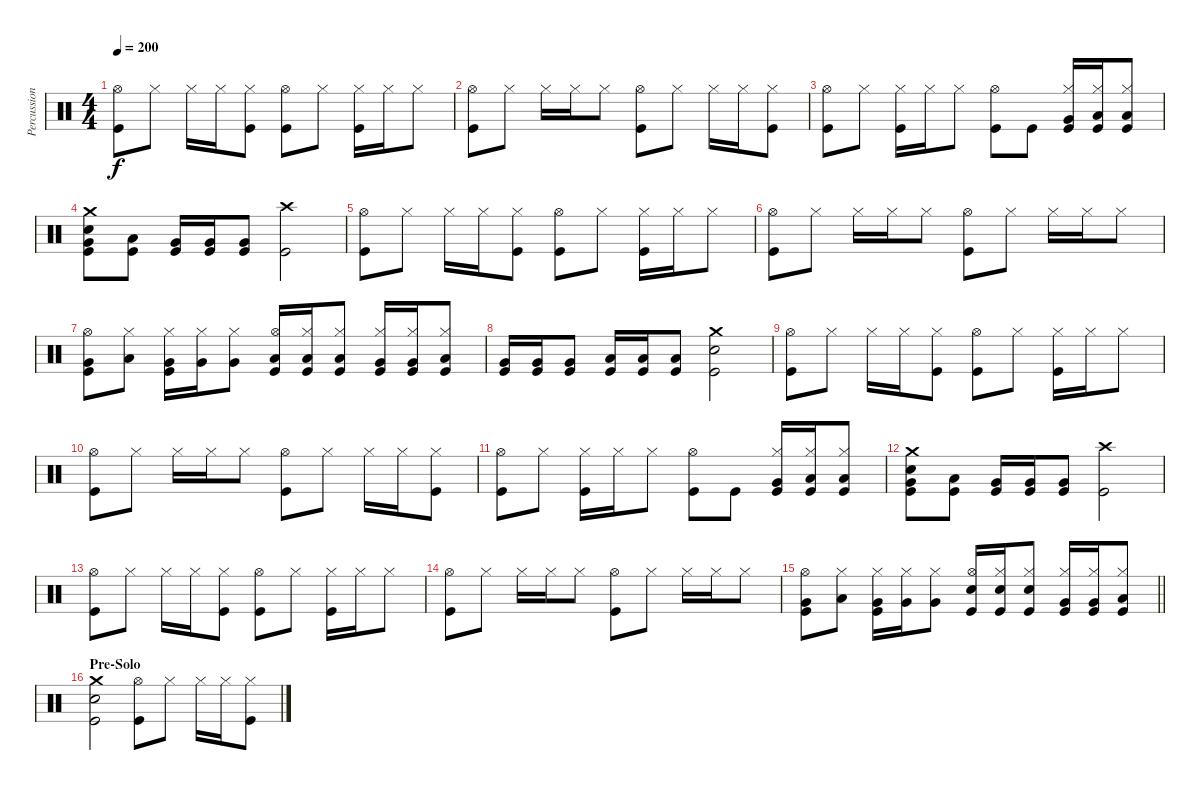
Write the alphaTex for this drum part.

\track ("Percussion" "Percussion") {instrument percussion}
\staff {score}
\articulation defaults
\ts (4 4)
\tempo 200
\clef neutral
\ks c
("Kick (hit)" "Hi-Hat (open)").8{dy f} "Hi-Hat (closed)".8 "Hi-Hat (closed)".16 "Hi-Hat (closed)".16 ("Kick (hit)" "Hi-Hat (closed)").8 ("Kick (hit)" "Hi-Hat (open)").8 "Hi-Hat (closed)".8 ("Kick (hit)" "Hi-Hat (closed)").16 "Hi-Hat (closed)".16 "Hi-Hat (closed)".8 |
("Kick (hit)" "Hi-Hat (open)").8 "Hi-Hat (closed)".8 "Hi-Hat (closed)".16 "Hi-Hat (closed)".16 "Hi-Hat (closed)".8 ("Kick (hit)" "Hi-Hat (open)").8 "Hi-Hat (closed)".8 "Hi-Hat (closed)".16 "Hi-Hat (closed)".16 ("Kick (hit)" "Hi-Hat (closed)").8 |
("Kick (hit)" "Hi-Hat (open)").8 "Hi-Hat (closed)".8 ("Kick (hit)" "Hi-Hat (closed)").16 "Hi-Hat (closed)".16 "Hi-Hat (closed)".8 ("Kick (hit)" "Hi-Hat (open)").8 "Kick (hit)".8 ("Kick (hit)" "Hi-Hat (closed)" "Very Low Tom (hit)").16 ("Kick (hit)" "Hi-Hat (closed)" "Low Floor Tom (hit)").16 ("Kick (hit)" "Hi-Hat (closed)" "Low Floor Tom (hit)").8 |
("Snare (hit) 2" "Crash medium (hit)" "Kick (hit)" "Very Low Tom (hit)").8 ("Kick (hit)" "Low Floor Tom (hit)").8 ("Kick (hit)" "Very Low Tom (hit)").16 ("Kick (hit)" "Very Low Tom (hit)").16 ("Kick (hit)" "Very Low Tom (hit)").8 ("Kick (hit)" "Crash high (hit)").2 |
("Kick (hit)" "Hi-Hat (open)").8 "Hi-Hat (closed)".8 "Hi-Hat (closed)".16 "Hi-Hat (closed)".16 ("Kick (hit)" "Hi-Hat (closed)").8 ("Kick (hit)" "Hi-Hat (open)").8 "Hi-Hat (closed)".8 ("Kick (hit)" "Hi-Hat (closed)").16 "Hi-Hat (closed)".16 "Hi-Hat (closed)".8 |
("Kick (hit)" "Hi-Hat (open)").8 "Hi-Hat (closed)".8 "Hi-Hat (closed)".16 "Hi-Hat (closed)".16 "Hi-Hat (closed)".8 ("Kick (hit)" "Hi-Hat (open)").8 "Hi-Hat (closed)".8 "Hi-Hat (closed)".16 "Hi-Hat (closed)".16 "Hi-Hat (closed)".8 |
("Kick (hit)" "Hi-Hat (open)" "Very Low Tom (hit)").8 ("Hi-Hat (closed)" "Low Floor Tom (hit)").8 ("Kick (hit)" "Hi-Hat (closed)" "Very Low Tom (hit)").16 ("Hi-Hat (closed)" "Very Low Tom (hit)").16 ("Hi-Hat (closed)" "Very Low Tom (hit)").8 ("Kick (hit)" "Hi-Hat (open)" "Low Floor Tom (hit)").16 ("Kick (hit)" "Hi-Hat (closed)" "Low Floor Tom (hit)").16 ("Kick (hit)" "Hi-Hat (closed)" "Low Floor Tom (hit)").8 ("Kick (hit)" "Hi-Hat (closed)" "Very Low Tom (hit)").16 ("Kick (hit)" "Hi-Hat (closed)" "Very Low Tom (hit)").16 ("Kick (hit)" "Hi-Hat (closed)" "Low Floor Tom (hit)").8 |
("Kick (hit)" "Very Low Tom (hit)").16 ("Kick (hit)" "Very Low Tom (hit)").16 ("Kick (hit)" "Very Low Tom (hit)").8 ("Kick (hit)" "Low Floor Tom (hit)").16 ("Kick (hit)" "Low Floor Tom (hit)").16 ("Kick (hit)" "Low Floor Tom (hit)").8 ("Crash medium (hit)" "Snare (hit) 2" "Kick (hit)").2 |
("Kick (hit)" "Hi-Hat (open)").8 "Hi-Hat (closed)".8 "Hi-Hat (closed)".16 "Hi-Hat (closed)".16 ("Kick (hit)" "Hi-Hat (closed)").8 ("Kick (hit)" "Hi-Hat (open)").8 "Hi-Hat (closed)".8 ("Kick (hit)" "Hi-Hat (closed)").16 "Hi-Hat (closed)".16 "Hi-Hat (closed)".8 |
("Kick (hit)" "Hi-Hat (open)").8 "Hi-Hat (closed)".8 "Hi-Hat (closed)".16 "Hi-Hat (closed)".16 "Hi-Hat (closed)".8 ("Kick (hit)" "Hi-Hat (open)").8 "Hi-Hat (closed)".8 "Hi-Hat (closed)".16 "Hi-Hat (closed)".16 ("Kick (hit)" "Hi-Hat (closed)").8 |
("Kick (hit)" "Hi-Hat (open)").8 "Hi-Hat (closed)".8 ("Kick (hit)" "Hi-Hat (closed)").16 "Hi-Hat (closed)".16 "Hi-Hat (closed)".8 ("Kick (hit)" "Hi-Hat (open)").8 "Kick (hit)".8 ("Kick (hit)" "Hi-Hat (closed)" "Very Low Tom (hit)").16 ("Kick (hit)" "Hi-Hat (closed)" "Low Floor Tom (hit)").16 ("Kick (hit)" "Hi-Hat (closed)" "Low Floor Tom (hit)").8 |
("Snare (hit) 2" "Crash medium (hit)" "Kick (hit)" "Very Low Tom (hit)").8 ("Kick (hit)" "Low Floor Tom (hit)").8 ("Kick (hit)" "Very Low Tom (hit)").16 ("Kick (hit)" "Very Low Tom (hit)").16 ("Kick (hit)" "Very Low Tom (hit)").8 ("Kick (hit)" "Crash high (hit)").2 |
("Kick (hit)" "Hi-Hat (open)").8 "Hi-Hat (closed)".8 "Hi-Hat (closed)".16 "Hi-Hat (closed)".16 ("Kick (hit)" "Hi-Hat (closed)").8 ("Kick (hit)" "Hi-Hat (open)").8 "Hi-Hat (closed)".8 ("Kick (hit)" "Hi-Hat (closed)").16 "Hi-Hat (closed)".16 "Hi-Hat (closed)".8 |
("Kick (hit)" "Hi-Hat (open)").8 "Hi-Hat (closed)".8 "Hi-Hat (closed)".16 "Hi-Hat (closed)".16 "Hi-Hat (closed)".8 ("Kick (hit)" "Hi-Hat (open)").8 "Hi-Hat (closed)".8 "Hi-Hat (closed)".16 "Hi-Hat (closed)".16 "Hi-Hat (closed)".8 |
\barLineRight lightlight
("Kick (hit)" "Hi-Hat (open)" "Very Low Tom (hit)").8 ("Hi-Hat (closed)" "Low Floor Tom (hit)").8 ("Kick (hit)" "Hi-Hat (closed)" "Very Low Tom (hit)").16 ("Hi-Hat (closed)" "Very Low Tom (hit)").16 ("Hi-Hat (closed)" "Very Low Tom (hit)").8 ("Kick (hit)" "Hi-Hat (open)" "Snare (hit) 2").16 ("Kick (hit)" "Hi-Hat (closed)" "Snare (hit) 2").16 ("Kick (hit)" "Hi-Hat (closed)" "Snare (hit) 2").8 ("Kick (hit)" "Hi-Hat (closed)" "Very Low Tom (hit)").16 ("Kick (hit)" "Hi-Hat (closed)" "Very Low Tom (hit)").16 ("Kick (hit)" "Hi-Hat (closed)" "Low Floor Tom (hit)").8 |
\section ("" "Pre-Solo")
("Snare (hit) 2" "Crash medium (hit)" "Kick (hit)").2 ("Kick (hit)" "Hi-Hat (open)").8 "Hi-Hat (closed)".8 "Hi-Hat (closed)".16 "Hi-Hat (closed)".16 ("Kick (hit)" "Hi-Hat (closed)").8
